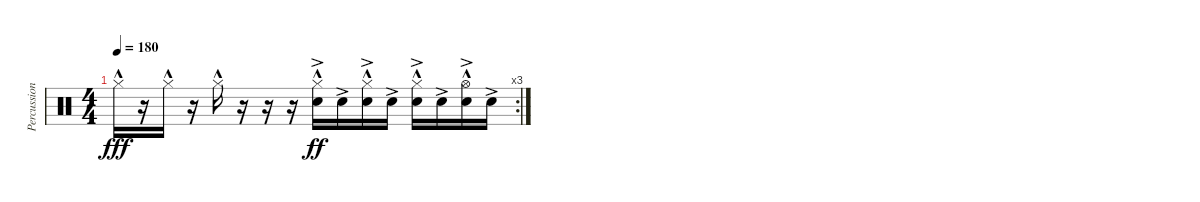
\track ("Percussion" "Percussion") {instrument percussion}
\staff {score}
\articulation defaults
\rc 3
\ts (4 4)
\tempo 180
\clef neutral
\ks c "Hi-Hat (closed)"{hac}.16{dy fff}
r.16 "Hi-Hat (closed)"{hac}.16 r.16 "Hi-Hat (closed)"{hac}.16 r.16 r.16 r.16 ("Hi-Hat (closed)"{hac} "Snare (hit) 2"{ac}).16{dy ff} "Snare (hit) 2"{ac}.16 ("Hi-Hat (closed)"{hac} "Snare (hit) 2"{ac}).16 "Snare (hit) 2"{ac}.16 ("Hi-Hat (closed)"{hac} "Snare (hit) 2"{ac}).16 "Snare (hit) 2"{ac}.16 ("Hi-Hat (open)"{hac} "Snare (hit) 2"{ac}).16 "Snare (hit) 2"{ac}.16
